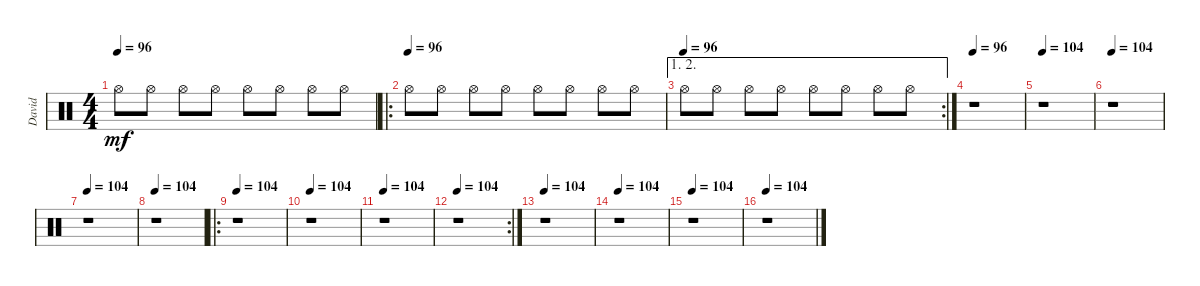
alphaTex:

\track ("David" "David") {instrument percussion}
\staff {score}
\articulation defaults
\ts (4 4)
\tempo 96
\clef neutral
\ks c "Hi-Hat (open)".8{dy mf} "Hi-Hat (open)".8 "Hi-Hat (open)".8 "Hi-Hat (open)".8 "Hi-Hat (open)".8 "Hi-Hat (open)".8 "Hi-Hat (open)".8 "Hi-Hat (open)".8
|
\ro
\tempo (96)
"Hi-Hat (open)".8 "Hi-Hat (open)".8 "Hi-Hat (open)".8 "Hi-Hat (open)".8 "Hi-Hat (open)".8 "Hi-Hat (open)".8 "Hi-Hat (open)".8 "Hi-Hat (open)".8 |
\ae (1 2)
\rc 2
\tempo (96)
"Hi-Hat (open)".8 "Hi-Hat (open)".8 "Hi-Hat (open)".8 "Hi-Hat (open)".8 "Hi-Hat (open)".8 "Hi-Hat (open)".8 "Hi-Hat (open)".8 "Hi-Hat (open)".8 |
\tempo 96
r.1 |
\tempo 104
r.1 |
\tempo 104
r.1 |
\tempo 104
r.1 |
\tempo 104
r.1 |
\ro
\tempo 104
r.1 |
\tempo 104
r.1 |
\tempo 104
r.1 |
\rc 2
\tempo 104
r.1 |
\tempo 104
r.1 |
\tempo 104
r.1 |
\tempo 104
r.1 |
\tempo 104
r.1
